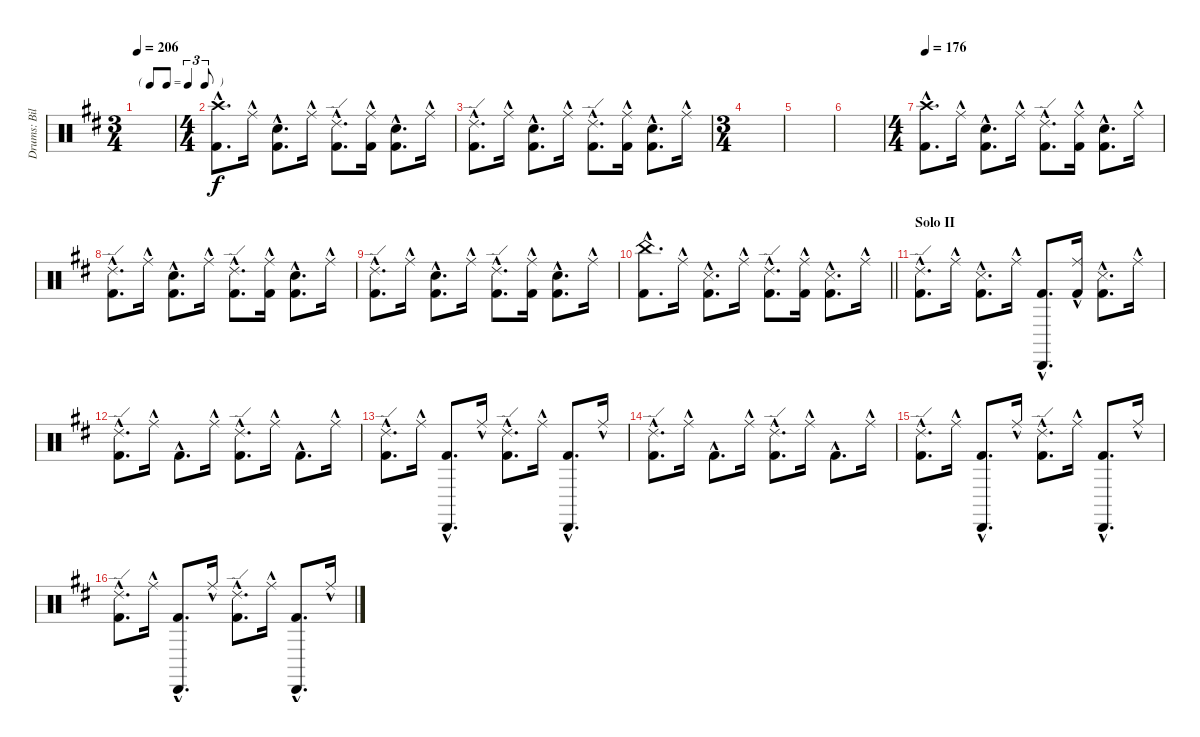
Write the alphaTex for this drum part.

\track ("Drums: Bill" "Drums: Bil") {instrument percussion}
\staff {score}
\articulation defaults
\ts (3 4)
\tf triplet8th
\tempo 206
\clef neutral
\ks d
|
\ts (4 4)
("Crash high (hit)"{hac} "Kick (hit) 2"{hac}).8{d} "Ride (middle)"{hac}.16 ("Snare (hit) 2"{hac} "Kick (hit) 2"{hac}).8{d} "Ride (middle)"{hac}.16 ("Ride (edge) 2"{hac} "Kick (hit) 2"{hac}).8{d} ("Ride (middle)"{hac} "Kick (hit) 2"{hac}).16 ("Snare (hit) 2"{hac} "Kick (hit) 2"{hac}).8{d} "Ride (middle)"{hac}.16 |
("Ride (edge) 2"{hac} "Kick (hit) 2"{hac}).8{d} "Ride (middle)"{hac}.16 ("Snare (hit) 2"{hac} "Kick (hit) 2"{hac}).8{d} "Ride (middle)"{hac}.16 ("Ride (edge) 2"{hac} "Kick (hit) 2"{hac}).8{d} ("Ride (middle)"{hac} "Kick (hit) 2"{hac}).16 ("Snare (hit) 2"{hac} "Kick (hit) 2"{hac}).8{d} "Ride (middle)"{hac}.16 |
\ts (3 4)
|
|
|
\ts (4 4)
\tempo 176
("Crash high (hit)"{hac} "Kick (hit) 2"{hac}).8{d} "Ride (middle)"{hac}.16 ("Snare (hit) 2"{hac} "Kick (hit) 2"{hac}).8{d} "Ride (middle)"{hac}.16 ("Ride (edge) 2"{hac} "Kick (hit) 2"{hac}).8{d} ("Ride (middle)"{hac} "Kick (hit) 2"{hac}).16 ("Snare (hit) 2"{hac} "Kick (hit) 2"{hac}).8{d} "Ride (middle)"{hac}.16 |
("Ride (edge) 2"{hac} "Kick (hit) 2"{hac}).8{d} "Ride (middle)"{hac}.16 ("Snare (hit) 2"{hac} "Kick (hit) 2"{hac}).8{d} "Ride (middle)"{hac}.16 ("Ride (edge) 2"{hac} "Kick (hit) 2"{hac}).8{d} ("Ride (middle)"{hac} "Kick (hit) 2"{hac}).16 ("Snare (hit) 2"{hac} "Kick (hit) 2"{hac}).8{d} "Ride (middle)"{hac}.16 |
("Ride (edge) 2"{hac} "Kick (hit) 2"{hac}).8{d} "Ride (middle)"{hac}.16 ("Snare (hit) 2"{hac} "Kick (hit) 2"{hac}).8{d} "Ride (middle)"{hac}.16 ("Ride (edge) 2"{hac} "Kick (hit) 2"{hac}).8{d} ("Ride (middle)"{hac} "Kick (hit) 2"{hac}).16 ("Snare (hit) 2"{hac} "Kick (hit) 2"{hac}).8{d} "Ride (middle)"{hac}.16 |
\barLineRight lightlight
("China (hit)"{hac} "Kick (hit) 2"{hac}).8{d volume 8} "Ride (middle)"{hac}.16 ("Snare (side stick) 3" "Kick (hit) 2"{hac}).8{d} "Ride (middle)"{hac}.16 ("Ride (edge) 2"{hac} "Kick (hit) 2"{hac}).8{d} ("Ride (middle)"{hac} "Kick (hit) 2"{hac}).16 ("Snare (side stick) 3" "Kick (hit) 2"{hac}).8{d} "Ride (middle)"{hac}.16 |
\section ("" "Solo II")
("Ride (edge) 2"{hac} "Kick (hit) 2"{hac}).8{d} "Ride (middle)"{hac}.16 ("Snare (side stick) 3" "Kick (hit) 2"{hac}).8{d} "Ride (middle)"{hac}.16 ("Cabasa (hit)"{hac} "Kick (hit) 2"{hac}).8{d} ("Ride (middle)"{hac} "Kick (hit) 2"{hac}).16 ("Snare (side stick) 3" "Kick (hit) 2"{hac}).8{d} "Ride (middle)"{hac}.16 |
("Ride (edge) 2"{hac} "Kick (hit) 2"{hac}).8{d} "Ride (middle)"{hac}.16 "Kick (hit) 2"{hac}.8{d} "Ride (middle)"{hac}.16 ("Ride (edge) 2"{hac} "Kick (hit) 2"{hac}).8{d} "Ride (middle)"{hac}.16 "Kick (hit) 2"{hac}.8{d} "Ride (middle)"{hac}.16 |
("Ride (edge) 2"{hac} "Kick (hit) 2"{hac}).8{d} "Ride (middle)"{hac}.16 ("Cabasa (hit)" "Kick (hit) 2"{hac}).8{d} "Ride (middle)"{hac}.16 ("Ride (edge) 2"{hac} "Kick (hit) 2"{hac}).8{d} "Ride (middle)"{hac}.16 ("Cabasa (hit)" "Kick (hit) 2"{hac}).8{d} "Ride (middle)"{hac}.16 |
("Ride (edge) 2"{hac} "Kick (hit) 2"{hac}).8{d} "Ride (middle)"{hac}.16 "Kick (hit) 2"{hac}.8{d} "Ride (middle)"{hac}.16 ("Ride (edge) 2"{hac} "Kick (hit) 2"{hac}).8{d} "Ride (middle)"{hac}.16 "Kick (hit) 2"{hac}.8{d} "Ride (middle)"{hac}.16 |
("Ride (edge) 2"{hac} "Kick (hit) 2"{hac}).8{d} "Ride (middle)"{hac}.16 ("Cabasa (hit)" "Kick (hit) 2"{hac}).8{d} "Ride (middle)"{hac}.16 ("Ride (edge) 2"{hac} "Kick (hit) 2"{hac}).8{d} "Ride (middle)"{hac}.16 ("Cabasa (hit)" "Kick (hit) 2"{hac}).8{d} "Ride (middle)"{hac}.16 |
("Ride (edge) 2"{hac} "Kick (hit) 2"{hac}).8{d} "Ride (middle)"{hac}.16 ("Cabasa (hit)" "Kick (hit) 2"{hac}).8{d} "Ride (middle)"{hac}.16 ("Ride (edge) 2"{hac} "Kick (hit) 2"{hac}).8{d} "Ride (middle)"{hac}.16 ("Cabasa (hit)" "Kick (hit) 2"{hac}).8{d} "Ride (middle)"{hac}.16
